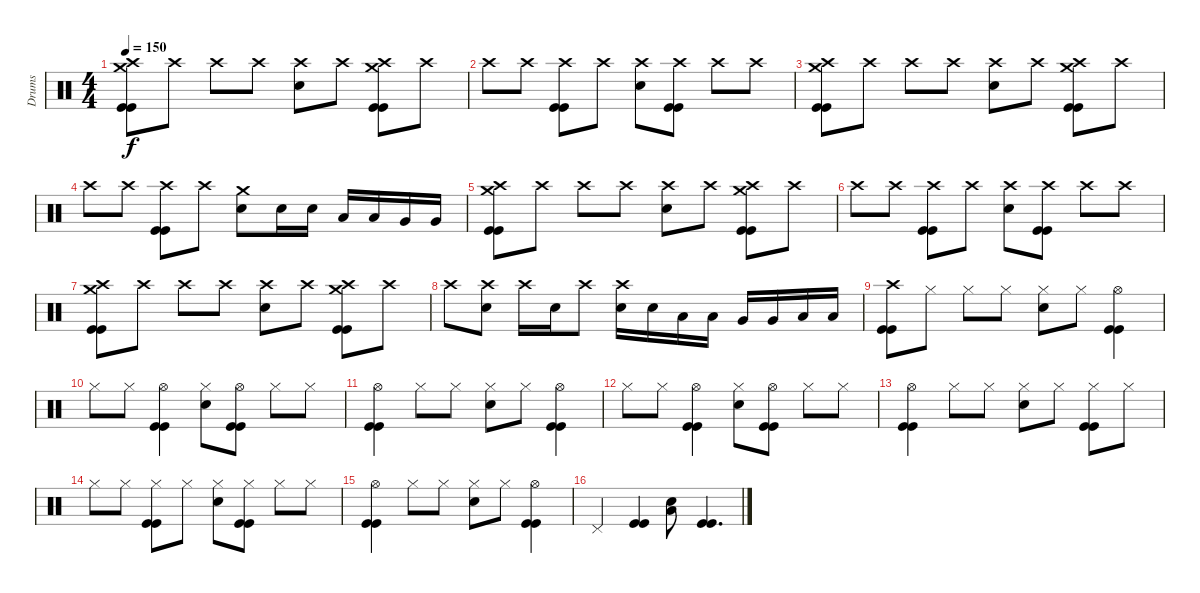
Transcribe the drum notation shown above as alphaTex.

\track ("Drums" "Drums") {instrument percussion}
\staff {score}
\articulation defaults
\ts (4 4)
\tempo 150
\clef neutral
\ks c
("Crash high (hit)" "Crash medium (hit)" "Kick (hit)" "Kick (hit)").8{dy f} "Crash high (hit)".8 "Crash high (hit)".8 "Crash high (hit)".8 ("Crash high (hit)" "Electric Snare (hit)").8 "Crash high (hit)".8 ("Crash high (hit)" "Crash medium (hit)" "Kick (hit)" "Kick (hit)").8 "Crash high (hit)".8 |
"Crash high (hit)".8 "Crash high (hit)".8 ("Crash high (hit)" "Kick (hit)" "Kick (hit)").8 "Crash high (hit)".8 ("Crash high (hit)" "Electric Snare (hit)").8 ("Crash high (hit)" "Kick (hit)" "Kick (hit)").8 "Crash high (hit)".8 "Crash high (hit)".8 |
("Crash high (hit)" "Crash medium (hit)" "Kick (hit)" "Kick (hit)").8 "Crash high (hit)".8 "Crash high (hit)".8 "Crash high (hit)".8 ("Crash high (hit)" "Electric Snare (hit)").8 "Crash high (hit)".8 ("Crash high (hit)" "Crash medium (hit)" "Kick (hit)" "Kick (hit)").8 "Crash high (hit)".8 |
"Crash high (hit)".8 "Crash high (hit)".8 ("Crash high (hit)" "Kick (hit)" "Kick (hit)").8 "Crash high (hit)".8 ("Crash medium (hit)" "Electric Snare (hit)").8 "Electric Snare (hit)".16 "Electric Snare (hit)".16 "Low Tom (hit)".16 "Low Tom (hit)".16 "Very Low Tom (hit)".16 "Very Low Tom (hit)".16 |
("Crash high (hit)" "Crash medium (hit)" "Kick (hit)" "Kick (hit)").8 "Crash high (hit)".8 "Crash high (hit)".8 "Crash high (hit)".8 ("Crash high (hit)" "Electric Snare (hit)").8 "Crash high (hit)".8 ("Crash high (hit)" "Crash medium (hit)" "Kick (hit)" "Kick (hit)").8 "Crash high (hit)".8 |
"Crash high (hit)".8 "Crash high (hit)".8 ("Crash high (hit)" "Kick (hit)" "Kick (hit)").8 "Crash high (hit)".8 ("Crash high (hit)" "Electric Snare (hit)").8 ("Crash high (hit)" "Kick (hit)" "Kick (hit)").8 "Crash high (hit)".8 "Crash high (hit)".8 |
("Crash high (hit)" "Crash medium (hit)" "Kick (hit)" "Kick (hit)").8 "Crash high (hit)".8 "Crash high (hit)".8 "Crash high (hit)".8 ("Crash high (hit)" "Electric Snare (hit)").8 "Crash high (hit)".8 ("Crash high (hit)" "Crash medium (hit)" "Kick (hit)" "Kick (hit)").8 "Crash high (hit)".8 |
"Crash high (hit)".8 ("Crash high (hit)" "Electric Snare (hit)").8 "Crash high (hit)".16 "Electric Snare (hit)".16 "Crash high (hit)".8 ("Crash high (hit)" "Electric Snare (hit)").16 "Electric Snare (hit)".16 "Low Tom (hit)".16 "Low Tom (hit)".16 "Very Low Tom (hit)".16 "Very Low Tom (hit)".16 "Low Floor Tom (hit)".16 "Low Floor Tom (hit)".16 |
("Crash high (hit)" "Kick (hit)" "Kick (hit)").8 "Hi-Hat (closed)".8 "Hi-Hat (closed)".8 "Hi-Hat (closed)".8 ("Hi-Hat (closed)" "Electric Snare (hit)").8 "Hi-Hat (closed)".8 ("Hi-Hat (open)" "Kick (hit)" "Kick (hit)").4 |
"Hi-Hat (closed)".8 "Hi-Hat (closed)".8 ("Hi-Hat (open)" "Kick (hit)" "Kick (hit)").4 ("Hi-Hat (closed)" "Electric Snare (hit)").8 ("Hi-Hat (open)" "Kick (hit)" "Kick (hit)").8 "Hi-Hat (closed)".8 "Hi-Hat (closed)".8 |
("Hi-Hat (open)" "Kick (hit)" "Kick (hit)").4 "Hi-Hat (closed)".8 "Hi-Hat (closed)".8 ("Hi-Hat (closed)" "Electric Snare (hit)").8 "Hi-Hat (closed)".8 ("Hi-Hat (open)" "Kick (hit)" "Kick (hit)").4 |
"Hi-Hat (closed)".8 "Hi-Hat (closed)".8 ("Hi-Hat (open)" "Kick (hit)" "Kick (hit)").4 ("Hi-Hat (closed)" "Electric Snare (hit)").8 ("Hi-Hat (open)" "Kick (hit)" "Kick (hit)").8 "Hi-Hat (closed)".8 "Hi-Hat (closed)".8 |
("Hi-Hat (open)" "Kick (hit)" "Kick (hit)").4 "Hi-Hat (closed)".8 "Hi-Hat (closed)".8 ("Hi-Hat (closed)" "Electric Snare (hit)").8 "Hi-Hat (closed)".8 ("Hi-Hat (closed)" "Kick (hit)" "Kick (hit)").8 "Hi-Hat (closed)".8 |
"Hi-Hat (closed)".8 "Hi-Hat (closed)".8 ("Hi-Hat (closed)" "Kick (hit)" "Kick (hit)").8 "Hi-Hat (closed)".8 ("Hi-Hat (closed)" "Electric Snare (hit)").8 ("Hi-Hat (closed)" "Kick (hit)" "Kick (hit)").8 "Hi-Hat (closed)".8 "Hi-Hat (closed)".8 |
("Hi-Hat (open)" "Kick (hit)" "Kick (hit)").4 "Hi-Hat (closed)".8 "Hi-Hat (closed)".8 ("Hi-Hat (closed)" "Electric Snare (hit)").8 "Hi-Hat (closed)".8 ("Hi-Hat (open)" "Kick (hit)" "Kick (hit)").4 |
"Pedal Hi-Hat (hit)".4 ("Kick (hit)" "Kick (hit)").4 ("Electric Snare (hit)" "Low Floor Tom (hit)").8 ("Kick (hit)" "Kick (hit)").4{d}
